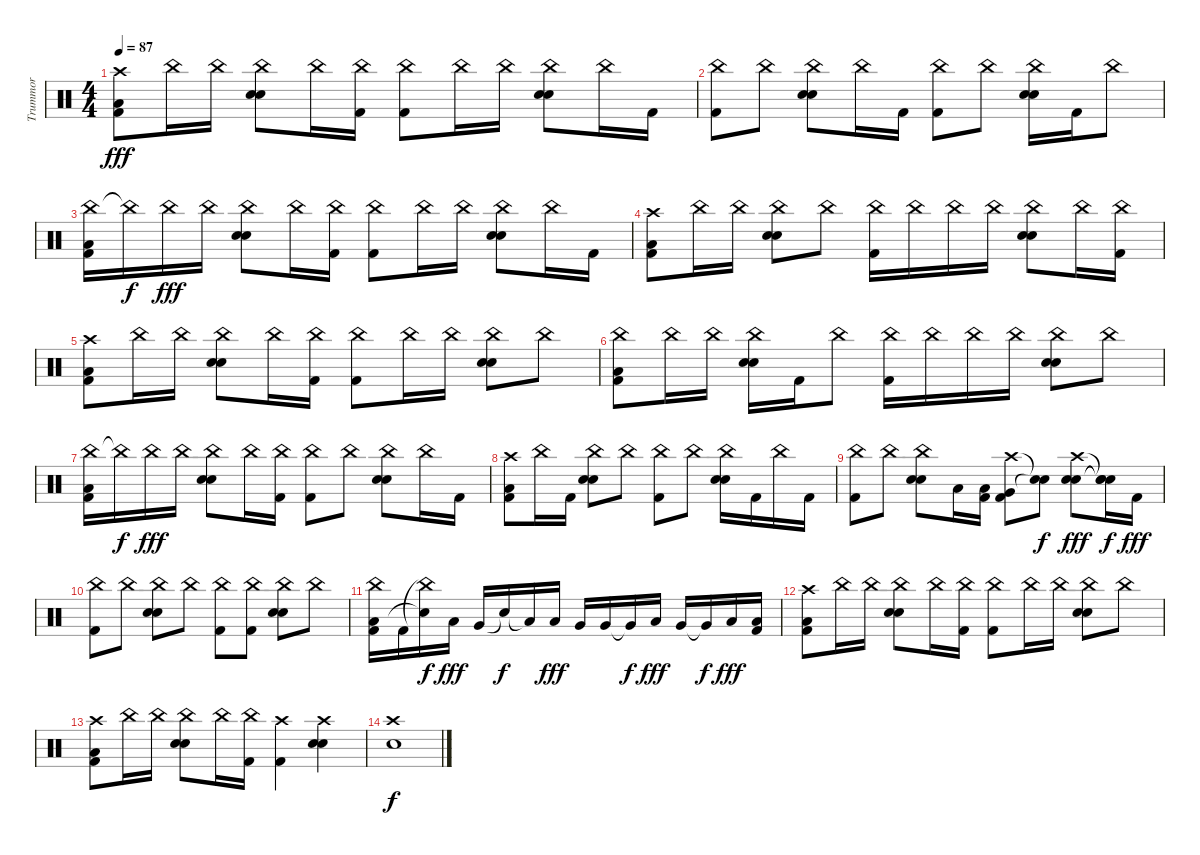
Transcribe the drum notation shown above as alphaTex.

\track ("Trummor" "Trummor") {instrument percussion}
\staff {score}
\articulation defaults
\ts (4 4)
\tempo 87
\clef neutral
\ks c
("Crash high (hit)" "Low Floor Tom (hit)" "Kick (hit) 2").8{dy fff} "China (hit)".16 "China (hit)".16 ("China (hit)" "Snare (hit) 2" "Electric Snare (hit)").8 "China (hit)".16 ("China (hit)" "Kick (hit) 2").16 ("China (hit)" "Kick (hit) 2").8 "China (hit)".16 "China (hit)".16 ("China (hit)" "Snare (hit) 2" "Electric Snare (hit)").8 "China (hit)".16 "Kick (hit) 2".16 |
("China (hit)" "Kick (hit) 2").8 "China (hit)".8 ("China (hit)" "Snare (hit) 2" "Electric Snare (hit)").8 "China (hit)".16 "Kick (hit) 2".16 ("China (hit)" "Kick (hit) 2").8 "China (hit)".8 ("China (hit)" "Snare (hit) 2" "Electric Snare (hit)").16 "Kick (hit) 2".16 "China (hit)".8 |
("China (hit)" "Low Floor Tom (hit)" "Kick (hit) 2").16 "China (hit)"{t}.16{dy f} "China (hit)".16{dy fff} "China (hit)".16 ("China (hit)" "Snare (hit) 2" "Electric Snare (hit)").8 "China (hit)".16 ("China (hit)" "Kick (hit) 2").16 ("China (hit)" "Kick (hit) 2").8 "China (hit)".16 "China (hit)".16 ("China (hit)" "Snare (hit) 2" "Electric Snare (hit)").8 "China (hit)".16 "Kick (hit) 2".16 |
("Crash high (hit)" "Low Floor Tom (hit)" "Kick (hit) 2").8 "China (hit)".16 "China (hit)".16 ("China (hit)" "Snare (hit) 2" "Electric Snare (hit)").8 "China (hit)".8 ("China (hit)" "Kick (hit) 2").16 "China (hit)".16 "China (hit)".16 "China (hit)".16 ("China (hit)" "Snare (hit) 2" "Electric Snare (hit)").8 "China (hit)".16 ("China (hit)" "Kick (hit) 2").16 |
("Crash high (hit)" "Low Floor Tom (hit)" "Kick (hit) 2").8 "China (hit)".16 "China (hit)".16 ("China (hit)" "Snare (hit) 2" "Electric Snare (hit)").8 "China (hit)".16 ("China (hit)" "Kick (hit) 2").16 ("China (hit)" "Kick (hit) 2").8 "China (hit)".16 "China (hit)".16 ("China (hit)" "Snare (hit) 2" "Electric Snare (hit)").8 "China (hit)".8 |
("China (hit)" "Low Floor Tom (hit)" "Kick (hit) 2").8 "China (hit)".16 "China (hit)".16 ("China (hit)" "Snare (hit) 2" "Electric Snare (hit)").16 "Kick (hit) 2".16 "China (hit)".8 ("China (hit)" "Kick (hit) 2").16 "China (hit)".16 "China (hit)".16 "China (hit)".16 ("China (hit)" "Snare (hit) 2" "Electric Snare (hit)").8 "China (hit)".8 |
("China (hit)" "Low Floor Tom (hit)" "Kick (hit) 2").16 "China (hit)"{t}.16{dy f} "China (hit)".16{dy fff} "China (hit)".16 ("China (hit)" "Snare (hit) 2" "Electric Snare (hit)").8 "China (hit)".16 ("China (hit)" "Kick (hit) 2").16 ("China (hit)" "Kick (hit) 2").8 "China (hit)".8 ("China (hit)" "Snare (hit) 2" "Electric Snare (hit)").8 "China (hit)".16 "Kick (hit) 2".16 |
("Crash high (hit)" "Low Floor Tom (hit)" "Kick (hit) 2").8 "China (hit)".16 "Kick (hit) 2".16 ("China (hit)" "Snare (hit) 2" "Electric Snare (hit)").8 "China (hit)".8 ("China (hit)" "Kick (hit) 2").8 "China (hit)".8 ("China (hit)" "Snare (hit) 2" "Electric Snare (hit)").16 "Kick (hit) 2".16 "China (hit)".16 "Kick (hit) 2".16 |
("China (hit)" "Kick (hit) 2").8 "China (hit)".8 ("China (hit)" "Snare (hit) 2" "Electric Snare (hit)").8 "Low Floor Tom (hit)".16 ("Low Floor Tom (hit)" "Kick (hit) 2").16 ("Crash high (hit)" "Very Low Tom (hit)" "Kick (hit) 2").8 ("Snare (hit)"{t} "Snare (hit)"{t}).8{dy f} ("Crash high (hit)" "Snare (hit) 2" "Electric Snare (hit)").8{dy fff} ("Snare (hit)"{t} "Snare (hit)"{t} "Snare (hit)"{t}).16{dy f} "Kick (hit) 2".16{dy fff} |
("China (hit)" "Kick (hit) 2").8 "China (hit)".8 ("China (hit)" "Snare (hit) 2" "Electric Snare (hit)").8 "China (hit)".8 ("China (hit)" "Kick (hit) 2").8 ("China (hit)" "Kick (hit) 2").8 ("China (hit)" "Snare (hit) 2" "Electric Snare (hit)").8 "China (hit)".8 |
("China (hit)" "Low Floor Tom (hit)" "Kick (hit) 2").16 "Kick (hit) 2".16 ("China (hit)"{t} "Snare (hit)"{t}).16{dy f} "Low Floor Tom (hit)".16{dy fff} "Very Low Tom (hit)".16 "Snare (hit)"{t}.16{dy f} "Low Floor Tom (hit)"{t}.16 "Low Floor Tom (hit)".16{dy fff} "Very Low Tom (hit)".16 "Very Low Tom (hit)".16 "Very Low Tom (hit)"{t}.16{dy f} "Low Floor Tom (hit)".16{dy fff} "Very Low Tom (hit)".16 "Very Low Tom (hit)"{t}.16{dy f} "Low Tom (hit)".16{dy fff} ("Low Tom (hit)" "Kick (hit) 2").16 |
("Crash high (hit)" "Low Floor Tom (hit)" "Kick (hit) 2").8 "China (hit)".16 "China (hit)".16 ("China (hit)" "Snare (hit) 2" "Electric Snare (hit)").8 "China (hit)".16 ("China (hit)" "Kick (hit) 2").16 ("China (hit)" "Kick (hit) 2").8 "China (hit)".16 "China (hit)".16 ("China (hit)" "Snare (hit) 2" "Electric Snare (hit)").8 "China (hit)".8 |
("Crash high (hit)" "Low Floor Tom (hit)" "Kick (hit) 2").8 "China (hit)".16 "China (hit)".16 ("China (hit)" "Snare (hit) 2" "Electric Snare (hit)").8 "China (hit)".16 ("China (hit)" "Kick (hit) 2").16 ("Crash high (hit)" "Kick (hit) 2").4 ("Crash high (hit)" "Snare (hit) 2" "Electric Snare (hit)").4 |
("Crash high (hit)" "Electric Snare (hit)").1{dy f}
